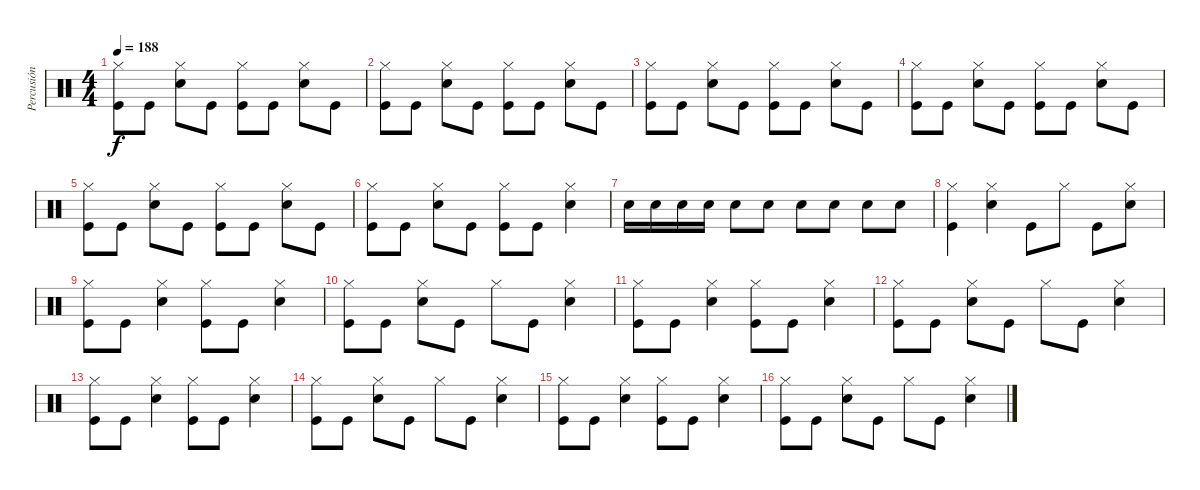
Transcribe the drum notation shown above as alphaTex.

\track ("Percusión" "Percusión") {instrument percussion}
\staff {score}
\articulation defaults
\ts (4 4)
\tempo 188
\clef neutral
\ks c
("Hi-Hat (closed)" "Kick (hit)").8{dy f} "Kick (hit)".8 ("Hi-Hat (closed)" "Snare (hit) 2").8 "Kick (hit)".8 ("Hi-Hat (closed)" "Kick (hit)").8 "Kick (hit)".8 ("Hi-Hat (closed)" "Snare (hit) 2").8 "Kick (hit)".8 |
("Hi-Hat (closed)" "Kick (hit)").8 "Kick (hit)".8 ("Hi-Hat (closed)" "Snare (hit) 2").8 "Kick (hit)".8 ("Hi-Hat (closed)" "Kick (hit)").8 "Kick (hit)".8 ("Hi-Hat (closed)" "Snare (hit) 2").8 "Kick (hit)".8 |
("Hi-Hat (closed)" "Kick (hit)").8 "Kick (hit)".8 ("Hi-Hat (closed)" "Snare (hit) 2").8 "Kick (hit)".8 ("Hi-Hat (closed)" "Kick (hit)").8 "Kick (hit)".8 ("Hi-Hat (closed)" "Snare (hit) 2").8 "Kick (hit)".8 |
("Hi-Hat (closed)" "Kick (hit)").8 "Kick (hit)".8 ("Hi-Hat (closed)" "Snare (hit) 2").8 "Kick (hit)".8 ("Hi-Hat (closed)" "Kick (hit)").8 "Kick (hit)".8 ("Hi-Hat (closed)" "Snare (hit) 2").8 "Kick (hit)".8 |
("Hi-Hat (closed)" "Kick (hit)").8 "Kick (hit)".8 ("Hi-Hat (closed)" "Snare (hit) 2").8 "Kick (hit)".8 ("Hi-Hat (closed)" "Kick (hit)").8 "Kick (hit)".8 ("Hi-Hat (closed)" "Snare (hit) 2").8 "Kick (hit)".8 |
("Hi-Hat (closed)" "Kick (hit)").8 "Kick (hit)".8 ("Hi-Hat (closed)" "Snare (hit) 2").8 "Kick (hit)".8 ("Hi-Hat (closed)" "Kick (hit)").8 "Kick (hit)".8 ("Hi-Hat (closed)" "Snare (hit) 2").4 |
"Snare (hit) 2".16 "Snare (hit) 2".16 "Snare (hit) 2".16 "Snare (hit) 2".16 "Snare (hit) 2".8 "Snare (hit) 2".8 "Snare (hit) 2".8 "Snare (hit) 2".8 "Snare (hit) 2".8 "Snare (hit) 2".8 |
("Hi-Hat (closed)" "Kick (hit)").4 ("Hi-Hat (closed)" "Snare (hit) 2").4 "Kick (hit)".8 "Hi-Hat (closed)".8 "Kick (hit)".8 ("Hi-Hat (closed)" "Snare (hit) 2").8 |
("Hi-Hat (closed)" "Kick (hit)").8 "Kick (hit)".8 ("Hi-Hat (closed)" "Snare (hit) 2").4 ("Hi-Hat (closed)" "Kick (hit)").8 "Kick (hit)".8 ("Hi-Hat (closed)" "Snare (hit) 2").4 |
("Hi-Hat (closed)" "Kick (hit)").8 "Kick (hit)".8 ("Hi-Hat (closed)" "Snare (hit) 2").8 "Kick (hit)".8 "Hi-Hat (closed)".8 "Kick (hit)".8 ("Hi-Hat (closed)" "Snare (hit) 2").4 |
("Hi-Hat (closed)" "Kick (hit)").8 "Kick (hit)".8 ("Hi-Hat (closed)" "Snare (hit) 2").4 ("Hi-Hat (closed)" "Kick (hit)").8 "Kick (hit)".8 ("Hi-Hat (closed)" "Snare (hit) 2").4 |
("Hi-Hat (closed)" "Kick (hit)").8 "Kick (hit)".8 ("Hi-Hat (closed)" "Snare (hit) 2").8 "Kick (hit)".8 "Hi-Hat (closed)".8 "Kick (hit)".8 ("Hi-Hat (closed)" "Snare (hit) 2").4 |
("Hi-Hat (closed)" "Kick (hit)").8 "Kick (hit)".8 ("Hi-Hat (closed)" "Snare (hit) 2").4 ("Hi-Hat (closed)" "Kick (hit)").8 "Kick (hit)".8 ("Hi-Hat (closed)" "Snare (hit) 2").4 |
("Hi-Hat (closed)" "Kick (hit)").8 "Kick (hit)".8 ("Hi-Hat (closed)" "Snare (hit) 2").8 "Kick (hit)".8 "Hi-Hat (closed)".8 "Kick (hit)".8 ("Hi-Hat (closed)" "Snare (hit) 2").4 |
("Hi-Hat (closed)" "Kick (hit)").8 "Kick (hit)".8 ("Hi-Hat (closed)" "Snare (hit) 2").4 ("Hi-Hat (closed)" "Kick (hit)").8 "Kick (hit)".8 ("Hi-Hat (closed)" "Snare (hit) 2").4 |
("Hi-Hat (closed)" "Kick (hit)").8 "Kick (hit)".8 ("Hi-Hat (closed)" "Snare (hit) 2").8 "Kick (hit)".8 "Hi-Hat (closed)".8 "Kick (hit)".8 ("Hi-Hat (closed)" "Snare (hit) 2").4
